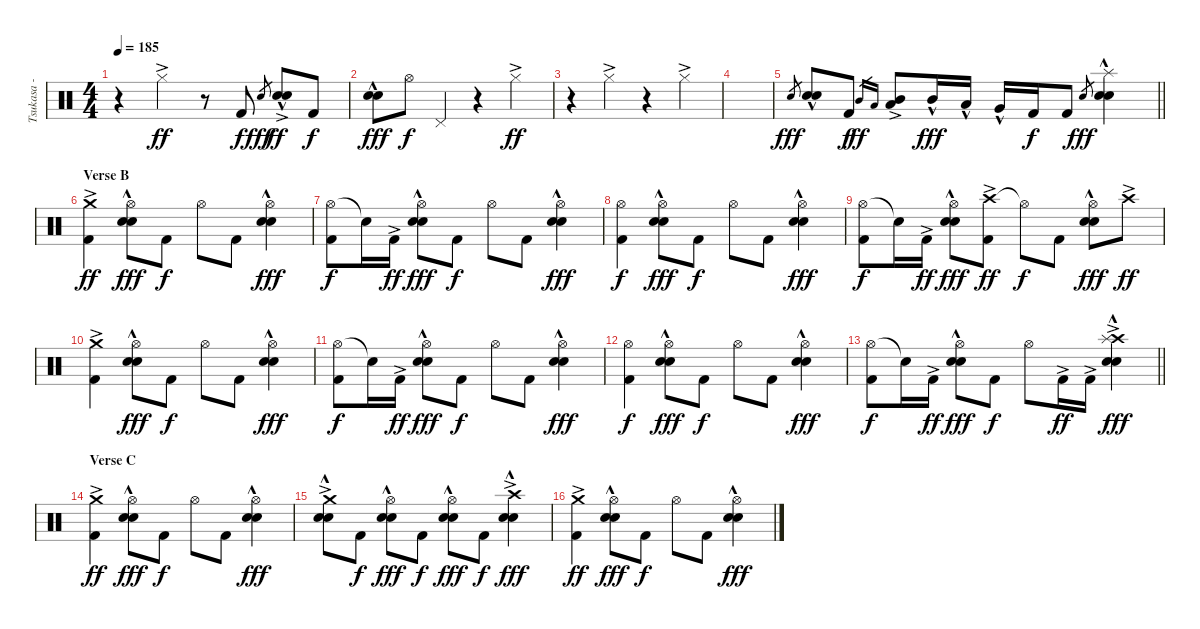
\track ("Tsukasa - Drums" "Tsukasa - ") {instrument percussion}
\staff {score}
\articulation defaults
\ts (4 4)
\tempo 185
\clef neutral
\ks c
r.4{dy ff} "Hi-Hat (closed)"{ac}.4 r.8 "Kick (hit) 2".8{dy f} "Electric Snare (hit)".8{gr dy fff} ("Electric Snare (hit)"{hac} "Snare (hit) 2"{ac}).8{dy ff} "Kick (hit) 2".8{dy f} |
("Electric Snare (hit)"{hac} "Snare (hit) 2"{hac}).8{dy fff} "Hi-Hat (open)".8{dy f} "Pedal Hi-Hat (hit)".4 r.4 "Hi-Hat (closed)"{ac}.4{dy ff} |
r.4 "Hi-Hat (closed)"{ac}.4 r.4 "Hi-Hat (closed)"{ac}.4 |
|
\barLineRight lightlight "Electric Snare (hit)".8{gr dy fff}
("Electric Snare (hit)"{hac} "Snare (hit) 2"{hac}).8 "Kick (hit) 2".8{dy f} "Mid Tom (hit)".16{gr dy ff} "Low Tom (hit)".16{gr} ("Mid Tom (hit)"{ac} "Low Tom (hit)"{ac}).8 "Mid Tom (hit)"{hac}.16{dy fff} "Low Tom (hit)"{hac}.16 "Very Low Tom (hit)"{hac}.16 "Kick (hit) 2".16{dy f} "Kick (hit) 2".8 "Electric Snare (hit)".8{gr dy fff} ("Splash (hit)"{hac} "Electric Snare (hit)"{hac} "Snare (hit) 2"{hac}).4 |
\section ("" "Verse B")
("Crash medium (hit)"{ac} "Kick (hit) 2").4{dy ff} ("Hi-Hat (open)" "Electric Snare (hit)"{hac} "Snare (hit) 2"{hac}).8{dy fff} "Kick (hit) 2".8{dy f} "Hi-Hat (open)".8 "Kick (hit) 2".8 ("Hi-Hat (open)" "Electric Snare (hit)"{hac} "Snare (hit) 2"{hac}).4{dy fff} |
("Hi-Hat (open)" "Kick (hit) 2").8{dy f} "Snare (hit)"{t}.16 "Kick (hit) 2"{ac}.16{dy ff} ("Hi-Hat (open)" "Electric Snare (hit)"{hac} "Snare (hit) 2"{hac}).8{dy fff} "Kick (hit) 2".8{dy f} "Hi-Hat (open)".8 "Kick (hit) 2".8 ("Hi-Hat (open)" "Electric Snare (hit)"{hac} "Snare (hit) 2"{hac}).4{dy fff} |
("Hi-Hat (open)" "Kick (hit) 2").4{dy f} ("Hi-Hat (open)" "Electric Snare (hit)"{hac} "Snare (hit) 2"{hac}).8{dy fff} "Kick (hit) 2".8{dy f} "Hi-Hat (open)".8 "Kick (hit) 2".8 ("Hi-Hat (open)" "Electric Snare (hit)"{hac} "Snare (hit) 2"{hac}).4{dy fff} |
("Hi-Hat (open)" "Kick (hit) 2").8{dy f} "Snare (hit)"{t}.16 "Kick (hit) 2"{ac}.16{dy ff} ("Hi-Hat (open)" "Electric Snare (hit)"{hac} "Snare (hit) 2"{hac}).8{dy fff} ("Crash high (hit)"{ac} "Kick (hit) 2").8{dy ff} "Hi-Hat (open)"{t}.8{dy f} "Kick (hit) 2".8 ("Hi-Hat (open)" "Electric Snare (hit)"{hac} "Snare (hit) 2"{hac}).8{dy fff} "Crash high (hit)"{ac}.8{dy ff} |
("Crash medium (hit)"{ac} "Kick (hit) 2").4 ("Hi-Hat (open)" "Electric Snare (hit)"{hac} "Snare (hit) 2"{hac}).8{dy fff} "Kick (hit) 2".8{dy f} "Hi-Hat (open)".8 "Kick (hit) 2".8 ("Hi-Hat (open)" "Electric Snare (hit)"{hac} "Snare (hit) 2"{hac}).4{dy fff} |
("Hi-Hat (open)" "Kick (hit) 2").8{dy f} "Snare (hit)"{t}.16 "Kick (hit) 2"{ac}.16{dy ff} ("Hi-Hat (open)" "Electric Snare (hit)"{hac} "Snare (hit) 2"{hac}).8{dy fff} "Kick (hit) 2".8{dy f} "Hi-Hat (open)".8 "Kick (hit) 2".8 ("Hi-Hat (open)" "Electric Snare (hit)"{hac} "Snare (hit) 2"{hac}).4{dy fff} |
("Hi-Hat (open)" "Kick (hit) 2").4{dy f} ("Hi-Hat (open)" "Electric Snare (hit)"{hac} "Snare (hit) 2"{hac}).8{dy fff} "Kick (hit) 2".8{dy f} "Hi-Hat (open)".8 "Kick (hit) 2".8 ("Hi-Hat (open)" "Electric Snare (hit)"{hac} "Snare (hit) 2"{hac}).4{dy fff} |
\barLineRight lightlight
("Hi-Hat (open)" "Kick (hit) 2").8{dy f} "Snare (hit)"{t}.16 "Kick (hit) 2"{ac}.16{dy ff} ("Hi-Hat (open)" "Electric Snare (hit)"{hac} "Snare (hit) 2"{hac}).8{dy fff} "Kick (hit) 2".8{dy f} "Hi-Hat (open)".8 "Kick (hit) 2"{ac}.16{dy ff} "Kick (hit) 2"{ac}.16 ("Crash high (hit)"{ac} "Splash (hit)"{ac} "Electric Snare (hit)"{hac} "Snare (hit) 2"{hac}).4{dy fff} |
\section ("" "Verse C")
("Crash medium (hit)"{ac} "Kick (hit) 2").4{dy ff} ("Hi-Hat (open)" "Electric Snare (hit)"{hac} "Snare (hit) 2"{hac}).8{dy fff} "Kick (hit) 2".8{dy f} "Hi-Hat (open)".8 "Kick (hit) 2".8 ("Hi-Hat (open)" "Electric Snare (hit)"{hac} "Snare (hit) 2"{hac}).4{dy fff} |
("Crash medium (hit)"{ac} "Electric Snare (hit)"{hac} "Snare (hit) 2"{hac}).8 "Kick (hit) 2".8{dy f} ("Hi-Hat (open)" "Electric Snare (hit)"{hac} "Snare (hit) 2"{hac}).8{dy fff} "Kick (hit) 2".8{dy f} ("Hi-Hat (open)" "Electric Snare (hit)"{hac} "Snare (hit) 2"{hac}).8{dy fff} "Kick (hit) 2".8{dy f} ("Crash high (hit)"{ac} "Electric Snare (hit)"{hac} "Snare (hit) 2"{hac}).4{dy fff} |
("Crash medium (hit)"{ac} "Kick (hit) 2").4{dy ff} ("Hi-Hat (open)" "Electric Snare (hit)"{hac} "Snare (hit) 2"{hac}).8{dy fff} "Kick (hit) 2".8{dy f} "Hi-Hat (open)".8 "Kick (hit) 2".8 ("Hi-Hat (open)" "Electric Snare (hit)"{hac} "Snare (hit) 2"{hac}).4{dy fff}
